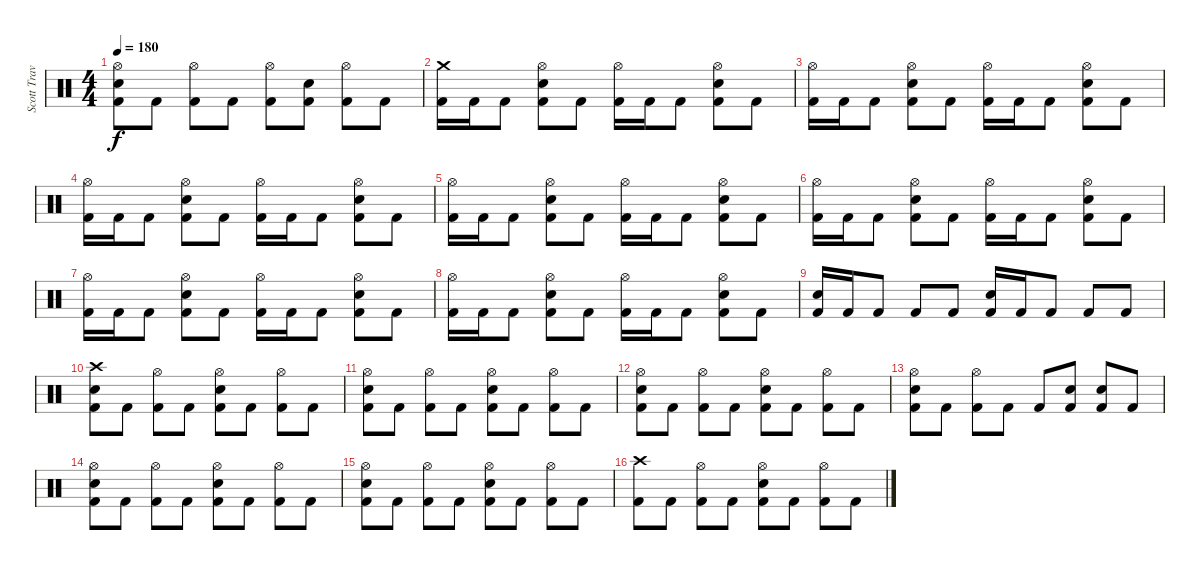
\track ("Scott Travis" "Scott Trav") {instrument percussion}
\staff {score}
\articulation defaults
\ts (4 4)
\tempo 180
\clef neutral
\ks c
("Hi-Hat (open)" "Snare (hit) 2" "Kick (hit) 2").8{dy f} "Kick (hit) 2".8 ("Hi-Hat (open)" "Kick (hit) 2").8 "Kick (hit) 2".8 ("Hi-Hat (open)" "Kick (hit) 2").8 ("Snare (hit) 2" "Kick (hit) 2").8 ("Hi-Hat (open)" "Kick (hit) 2").8 "Kick (hit) 2".8 |
("Crash medium (hit)" "Kick (hit) 2").16 "Kick (hit) 2".16 "Kick (hit) 2".8 ("Hi-Hat (open)" "Snare (hit) 2" "Kick (hit) 2").8 "Kick (hit) 2".8 ("Hi-Hat (open)" "Kick (hit) 2").16 "Kick (hit) 2".16 "Kick (hit) 2".8 ("Hi-Hat (open)" "Snare (hit) 2" "Kick (hit) 2").8 "Kick (hit) 2".8 |
("Hi-Hat (open)" "Kick (hit) 2").16 "Kick (hit) 2".16 "Kick (hit) 2".8 ("Hi-Hat (open)" "Snare (hit) 2" "Kick (hit) 2").8 "Kick (hit) 2".8 ("Hi-Hat (open)" "Kick (hit) 2").16 "Kick (hit) 2".16 "Kick (hit) 2".8 ("Hi-Hat (open)" "Snare (hit) 2" "Kick (hit) 2").8 "Kick (hit) 2".8 |
("Hi-Hat (open)" "Kick (hit) 2").16 "Kick (hit) 2".16 "Kick (hit) 2".8 ("Hi-Hat (open)" "Snare (hit) 2" "Kick (hit) 2").8 "Kick (hit) 2".8 ("Hi-Hat (open)" "Kick (hit) 2").16 "Kick (hit) 2".16 "Kick (hit) 2".8 ("Hi-Hat (open)" "Snare (hit) 2" "Kick (hit) 2").8 "Kick (hit) 2".8 |
("Hi-Hat (open)" "Kick (hit) 2").16 "Kick (hit) 2".16 "Kick (hit) 2".8 ("Hi-Hat (open)" "Snare (hit) 2" "Kick (hit) 2").8 "Kick (hit) 2".8 ("Hi-Hat (open)" "Kick (hit) 2").16 "Kick (hit) 2".16 "Kick (hit) 2".8 ("Hi-Hat (open)" "Snare (hit) 2" "Kick (hit) 2").8 "Kick (hit) 2".8 |
("Hi-Hat (open)" "Kick (hit) 2").16 "Kick (hit) 2".16 "Kick (hit) 2".8 ("Hi-Hat (open)" "Snare (hit) 2" "Kick (hit) 2").8 "Kick (hit) 2".8 ("Hi-Hat (open)" "Kick (hit) 2").16 "Kick (hit) 2".16 "Kick (hit) 2".8 ("Hi-Hat (open)" "Snare (hit) 2" "Kick (hit) 2").8 "Kick (hit) 2".8 |
("Hi-Hat (open)" "Kick (hit) 2").16 "Kick (hit) 2".16 "Kick (hit) 2".8 ("Hi-Hat (open)" "Snare (hit) 2" "Kick (hit) 2").8 "Kick (hit) 2".8 ("Hi-Hat (open)" "Kick (hit) 2").16 "Kick (hit) 2".16 "Kick (hit) 2".8 ("Hi-Hat (open)" "Snare (hit) 2" "Kick (hit) 2").8 "Kick (hit) 2".8 |
("Hi-Hat (open)" "Kick (hit) 2").16 "Kick (hit) 2".16 "Kick (hit) 2".8 ("Hi-Hat (open)" "Snare (hit) 2" "Kick (hit) 2").8 "Kick (hit) 2".8 ("Hi-Hat (open)" "Kick (hit) 2").16 "Kick (hit) 2".16 "Kick (hit) 2".8 ("Hi-Hat (open)" "Snare (hit) 2" "Kick (hit) 2").8 "Kick (hit) 2".8 |
("Snare (hit) 2" "Kick (hit) 2").16 "Kick (hit) 2".16 "Kick (hit) 2".8 "Kick (hit) 2".8 "Kick (hit) 2".8 ("Snare (hit) 2" "Kick (hit) 2").16 "Kick (hit) 2".16 "Kick (hit) 2".8 "Kick (hit) 2".8 "Kick (hit) 2".8 |
("Crash high (hit)" "Snare (hit) 2" "Kick (hit) 2").8 "Kick (hit) 2".8 ("Hi-Hat (open)" "Kick (hit) 2").8 "Kick (hit) 2".8 ("Hi-Hat (open)" "Snare (hit) 2" "Kick (hit) 2").8 "Kick (hit) 2".8 ("Hi-Hat (open)" "Kick (hit) 2").8 "Kick (hit) 2".8 |
("Hi-Hat (open)" "Snare (hit) 2" "Kick (hit) 2").8 "Kick (hit) 2".8 ("Hi-Hat (open)" "Kick (hit) 2").8 "Kick (hit) 2".8 ("Hi-Hat (open)" "Snare (hit) 2" "Kick (hit) 2").8 "Kick (hit) 2".8 ("Hi-Hat (open)" "Kick (hit) 2").8 "Kick (hit) 2".8 |
("Hi-Hat (open)" "Snare (hit) 2" "Kick (hit) 2").8 "Kick (hit) 2".8 ("Hi-Hat (open)" "Kick (hit) 2").8 "Kick (hit) 2".8 ("Hi-Hat (open)" "Snare (hit) 2" "Kick (hit) 2").8 "Kick (hit) 2".8 ("Hi-Hat (open)" "Kick (hit) 2").8 "Kick (hit) 2".8 |
("Hi-Hat (open)" "Snare (hit) 2" "Kick (hit) 2").8 "Kick (hit) 2".8 ("Hi-Hat (open)" "Kick (hit) 2").8 "Kick (hit) 2".8 "Kick (hit) 2".8 ("Snare (hit) 2" "Kick (hit) 2").8 ("Snare (hit) 2" "Kick (hit) 2").8 "Kick (hit) 2".8 |
("Hi-Hat (open)" "Snare (hit) 2" "Kick (hit) 2").8 "Kick (hit) 2".8 ("Hi-Hat (open)" "Kick (hit) 2").8 "Kick (hit) 2".8 ("Hi-Hat (open)" "Snare (hit) 2" "Kick (hit) 2").8 "Kick (hit) 2".8 ("Hi-Hat (open)" "Kick (hit) 2").8 "Kick (hit) 2".8 |
("Hi-Hat (open)" "Snare (hit) 2" "Kick (hit) 2").8 "Kick (hit) 2".8 ("Hi-Hat (open)" "Kick (hit) 2").8 "Kick (hit) 2".8 ("Hi-Hat (open)" "Snare (hit) 2" "Kick (hit) 2").8 "Kick (hit) 2".8 ("Hi-Hat (open)" "Kick (hit) 2").8 "Kick (hit) 2".8 |
("Crash high (hit)" "Kick (hit) 2").8 "Kick (hit) 2".8 ("Hi-Hat (open)" "Kick (hit) 2").8 "Kick (hit) 2".8 ("Hi-Hat (open)" "Snare (hit) 2" "Kick (hit) 2").8 "Kick (hit) 2".8 ("Hi-Hat (open)" "Kick (hit) 2").8 "Kick (hit) 2".8
